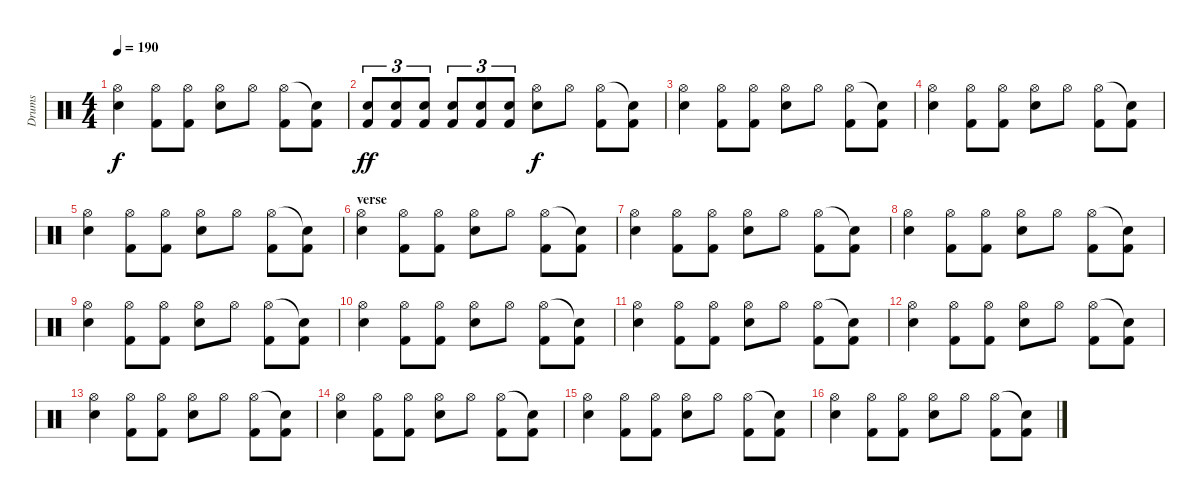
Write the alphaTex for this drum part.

\track ("Drums" "Drums") {instrument percussion}
\staff {score}
\articulation defaults
\ts (4 4)
\tempo 190
\clef neutral
\ks c
("Electric Snare (hit)" "Hi-Hat (open)").4{dy f} ("Hi-Hat (open)" "Kick (hit) 2").8 ("Hi-Hat (open)" "Kick (hit) 2").8 ("Hi-Hat (open)" "Electric Snare (hit)").8 "Hi-Hat (open)".8 ("Kick (hit) 2" "Hi-Hat (open)").8 ("Kick (hit) 2" "Snare (hit)"{t}).8 |
("Electric Snare (hit)" "Kick (hit) 2").8{tu (3 2) dy ff} ("Kick (hit) 2" "Electric Snare (hit)").8{tu (3 2)} ("Electric Snare (hit)" "Kick (hit) 2").8{tu (3 2)} ("Electric Snare (hit)" "Kick (hit) 2").8{tu (3 2)} ("Electric Snare (hit)" "Kick (hit) 2").8{tu (3 2)} ("Electric Snare (hit)" "Kick (hit) 2").8{tu (3 2)} ("Hi-Hat (open)" "Electric Snare (hit)").8{dy f} "Hi-Hat (open)".8 ("Kick (hit) 2" "Hi-Hat (open)").8 ("Kick (hit) 2" "Snare (hit)"{t}).8 |
("Electric Snare (hit)" "Hi-Hat (open)").4 ("Hi-Hat (open)" "Kick (hit) 2").8 ("Hi-Hat (open)" "Kick (hit) 2").8 ("Hi-Hat (open)" "Electric Snare (hit)").8 "Hi-Hat (open)".8 ("Kick (hit) 2" "Hi-Hat (open)").8 ("Kick (hit) 2" "Snare (hit)"{t}).8 |
("Electric Snare (hit)" "Hi-Hat (open)").4 ("Hi-Hat (open)" "Kick (hit) 2").8 ("Hi-Hat (open)" "Kick (hit) 2").8 ("Hi-Hat (open)" "Electric Snare (hit)").8 "Hi-Hat (open)".8 ("Kick (hit) 2" "Hi-Hat (open)").8 ("Kick (hit) 2" "Snare (hit)"{t}).8 |
("Electric Snare (hit)" "Hi-Hat (open)").4 ("Hi-Hat (open)" "Kick (hit) 2").8 ("Hi-Hat (open)" "Kick (hit) 2").8 ("Hi-Hat (open)" "Electric Snare (hit)").8 "Hi-Hat (open)".8 ("Kick (hit) 2" "Hi-Hat (open)").8 ("Kick (hit) 2" "Snare (hit)"{t}).8 |
\section ("" "verse")
("Electric Snare (hit)" "Hi-Hat (open)").4 ("Hi-Hat (open)" "Kick (hit) 2").8 ("Hi-Hat (open)" "Kick (hit) 2").8 ("Hi-Hat (open)" "Electric Snare (hit)").8 "Hi-Hat (open)".8 ("Kick (hit) 2" "Hi-Hat (open)").8 ("Kick (hit) 2" "Snare (hit)"{t}).8 |
("Electric Snare (hit)" "Hi-Hat (open)").4 ("Hi-Hat (open)" "Kick (hit) 2").8 ("Hi-Hat (open)" "Kick (hit) 2").8 ("Hi-Hat (open)" "Electric Snare (hit)").8 "Hi-Hat (open)".8 ("Kick (hit) 2" "Hi-Hat (open)").8 ("Kick (hit) 2" "Snare (hit)"{t}).8 |
("Electric Snare (hit)" "Hi-Hat (open)").4 ("Hi-Hat (open)" "Kick (hit) 2").8 ("Hi-Hat (open)" "Kick (hit) 2").8 ("Hi-Hat (open)" "Electric Snare (hit)").8 "Hi-Hat (open)".8 ("Kick (hit) 2" "Hi-Hat (open)").8 ("Kick (hit) 2" "Snare (hit)"{t}).8 |
("Electric Snare (hit)" "Hi-Hat (open)").4 ("Hi-Hat (open)" "Kick (hit) 2").8 ("Hi-Hat (open)" "Kick (hit) 2").8 ("Hi-Hat (open)" "Electric Snare (hit)").8 "Hi-Hat (open)".8 ("Kick (hit) 2" "Hi-Hat (open)").8 ("Kick (hit) 2" "Snare (hit)"{t}).8 |
("Electric Snare (hit)" "Hi-Hat (open)").4 ("Hi-Hat (open)" "Kick (hit) 2").8 ("Hi-Hat (open)" "Kick (hit) 2").8 ("Hi-Hat (open)" "Electric Snare (hit)").8 "Hi-Hat (open)".8 ("Kick (hit) 2" "Hi-Hat (open)").8 ("Kick (hit) 2" "Snare (hit)"{t}).8 |
("Electric Snare (hit)" "Hi-Hat (open)").4 ("Hi-Hat (open)" "Kick (hit) 2").8 ("Hi-Hat (open)" "Kick (hit) 2").8 ("Hi-Hat (open)" "Electric Snare (hit)").8 "Hi-Hat (open)".8 ("Kick (hit) 2" "Hi-Hat (open)").8 ("Kick (hit) 2" "Snare (hit)"{t}).8 |
("Electric Snare (hit)" "Hi-Hat (open)").4 ("Hi-Hat (open)" "Kick (hit) 2").8 ("Hi-Hat (open)" "Kick (hit) 2").8 ("Hi-Hat (open)" "Electric Snare (hit)").8 "Hi-Hat (open)".8 ("Kick (hit) 2" "Hi-Hat (open)").8 ("Kick (hit) 2" "Snare (hit)"{t}).8 |
("Electric Snare (hit)" "Hi-Hat (open)").4 ("Hi-Hat (open)" "Kick (hit) 2").8 ("Hi-Hat (open)" "Kick (hit) 2").8 ("Hi-Hat (open)" "Electric Snare (hit)").8 "Hi-Hat (open)".8 ("Kick (hit) 2" "Hi-Hat (open)").8 ("Kick (hit) 2" "Snare (hit)"{t}).8 |
("Electric Snare (hit)" "Hi-Hat (open)").4 ("Hi-Hat (open)" "Kick (hit) 2").8 ("Hi-Hat (open)" "Kick (hit) 2").8 ("Hi-Hat (open)" "Electric Snare (hit)").8 "Hi-Hat (open)".8 ("Kick (hit) 2" "Hi-Hat (open)").8 ("Kick (hit) 2" "Snare (hit)"{t}).8 |
("Electric Snare (hit)" "Hi-Hat (open)").4 ("Hi-Hat (open)" "Kick (hit) 2").8 ("Hi-Hat (open)" "Kick (hit) 2").8 ("Hi-Hat (open)" "Electric Snare (hit)").8 "Hi-Hat (open)".8 ("Kick (hit) 2" "Hi-Hat (open)").8 ("Kick (hit) 2" "Snare (hit)"{t}).8 |
("Electric Snare (hit)" "Hi-Hat (open)").4 ("Hi-Hat (open)" "Kick (hit) 2").8 ("Hi-Hat (open)" "Kick (hit) 2").8 ("Hi-Hat (open)" "Electric Snare (hit)").8 "Hi-Hat (open)".8 ("Kick (hit) 2" "Hi-Hat (open)").8 ("Kick (hit) 2" "Snare (hit)"{t}).8
